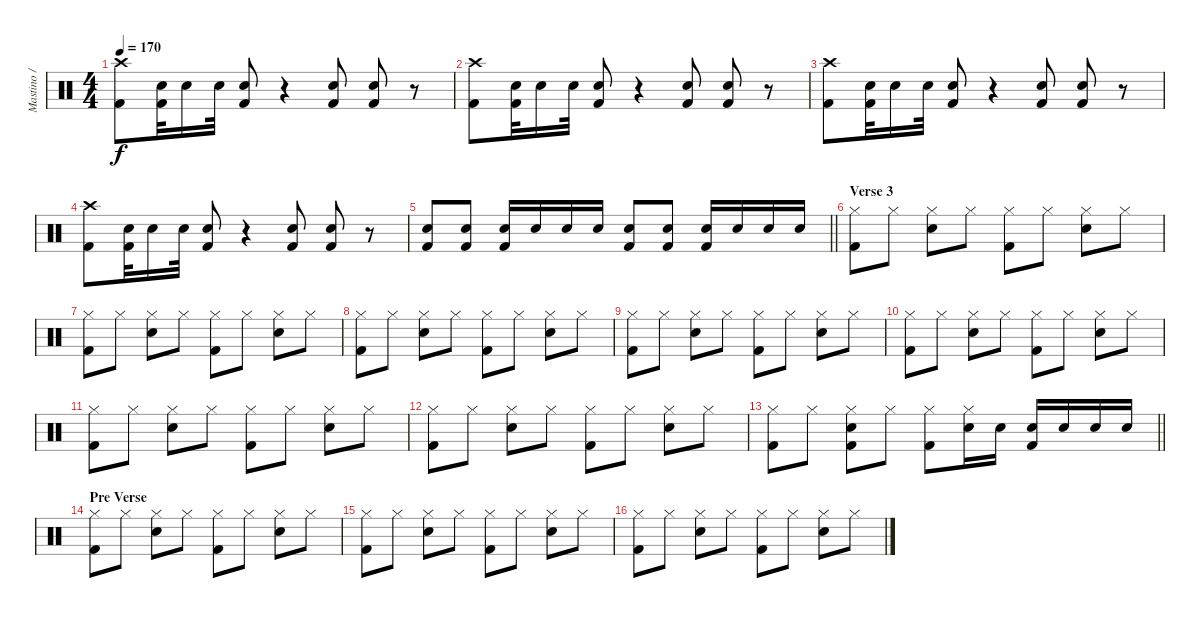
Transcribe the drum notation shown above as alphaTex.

\track ("Mastino / Drums" "Mastino / ") {instrument percussion}
\staff {score}
\articulation defaults
\ts (4 4)
\tempo 170
\clef neutral
\ks c
("Crash high (hit)" "Kick (hit) 2").8{dy f} ("Electric Snare (hit)" "Kick (hit) 2").32 "Electric Snare (hit)".16 "Electric Snare (hit)".32 ("Electric Snare (hit)" "Kick (hit) 2").8 r.4 ("Electric Snare (hit)" "Kick (hit) 2").8 ("Electric Snare (hit)" "Kick (hit) 2").8 r.8 |
("Crash high (hit)" "Kick (hit) 2").8 ("Electric Snare (hit)" "Kick (hit) 2").32 "Electric Snare (hit)".16 "Electric Snare (hit)".32 ("Electric Snare (hit)" "Kick (hit) 2").8 r.4 ("Electric Snare (hit)" "Kick (hit) 2").8 ("Electric Snare (hit)" "Kick (hit) 2").8 r.8 |
("Crash high (hit)" "Kick (hit) 2").8 ("Electric Snare (hit)" "Kick (hit) 2").32 "Electric Snare (hit)".16 "Electric Snare (hit)".32 ("Electric Snare (hit)" "Kick (hit) 2").8 r.4 ("Electric Snare (hit)" "Kick (hit) 2").8 ("Electric Snare (hit)" "Kick (hit) 2").8 r.8 |
("Crash high (hit)" "Kick (hit) 2").8 ("Electric Snare (hit)" "Kick (hit) 2").32 "Electric Snare (hit)".16 "Electric Snare (hit)".32 ("Electric Snare (hit)" "Kick (hit) 2").8 r.4 ("Electric Snare (hit)" "Kick (hit) 2").8 ("Electric Snare (hit)" "Kick (hit) 2").8 r.8 |
\barLineRight lightlight
("Electric Snare (hit)" "Kick (hit) 2").8 ("Electric Snare (hit)" "Kick (hit) 2").8 ("Electric Snare (hit)" "Kick (hit) 2").16 "Electric Snare (hit)".16 "Electric Snare (hit)".16 "Electric Snare (hit)".16 ("Electric Snare (hit)" "Kick (hit) 2").8 ("Electric Snare (hit)" "Kick (hit) 2").8 ("Electric Snare (hit)" "Kick (hit) 2").16 "Electric Snare (hit)".16 "Electric Snare (hit)".16 "Electric Snare (hit)".16 |
\section ("" "Verse 3")
("Hi-Hat (closed)" "Kick (hit) 2").8 "Hi-Hat (closed)".8 ("Hi-Hat (closed)" "Electric Snare (hit)").8 "Hi-Hat (closed)".8 ("Hi-Hat (closed)" "Kick (hit) 2").8 "Hi-Hat (closed)".8 ("Hi-Hat (closed)" "Electric Snare (hit)").8 "Hi-Hat (closed)".8 |
("Hi-Hat (closed)" "Kick (hit) 2").8 "Hi-Hat (closed)".8 ("Hi-Hat (closed)" "Electric Snare (hit)").8 "Hi-Hat (closed)".8 ("Hi-Hat (closed)" "Kick (hit) 2").8 "Hi-Hat (closed)".8 ("Hi-Hat (closed)" "Electric Snare (hit)").8 "Hi-Hat (closed)".8 |
("Hi-Hat (closed)" "Kick (hit) 2").8 "Hi-Hat (closed)".8 ("Hi-Hat (closed)" "Electric Snare (hit)").8 "Hi-Hat (closed)".8 ("Hi-Hat (closed)" "Kick (hit) 2").8 "Hi-Hat (closed)".8 ("Hi-Hat (closed)" "Electric Snare (hit)").8 "Hi-Hat (closed)".8 |
("Hi-Hat (closed)" "Kick (hit) 2").8 "Hi-Hat (closed)".8 ("Hi-Hat (closed)" "Electric Snare (hit)").8 "Hi-Hat (closed)".8 ("Hi-Hat (closed)" "Kick (hit) 2").8 "Hi-Hat (closed)".8 ("Hi-Hat (closed)" "Electric Snare (hit)").8 "Hi-Hat (closed)".8 |
("Hi-Hat (closed)" "Kick (hit) 2").8 "Hi-Hat (closed)".8 ("Hi-Hat (closed)" "Electric Snare (hit)").8 "Hi-Hat (closed)".8 ("Hi-Hat (closed)" "Kick (hit) 2").8 "Hi-Hat (closed)".8 ("Hi-Hat (closed)" "Electric Snare (hit)").8 "Hi-Hat (closed)".8 |
("Hi-Hat (closed)" "Kick (hit) 2").8 "Hi-Hat (closed)".8 ("Hi-Hat (closed)" "Electric Snare (hit)").8 "Hi-Hat (closed)".8 ("Hi-Hat (closed)" "Kick (hit) 2").8 "Hi-Hat (closed)".8 ("Hi-Hat (closed)" "Electric Snare (hit)").8 "Hi-Hat (closed)".8 |
("Hi-Hat (closed)" "Kick (hit) 2").8 "Hi-Hat (closed)".8 ("Hi-Hat (closed)" "Electric Snare (hit)").8 "Hi-Hat (closed)".8 ("Hi-Hat (closed)" "Kick (hit) 2").8 "Hi-Hat (closed)".8 ("Hi-Hat (closed)" "Electric Snare (hit)").8 "Hi-Hat (closed)".8 |
\barLineRight lightlight
("Hi-Hat (closed)" "Kick (hit) 2").8 "Hi-Hat (closed)".8 ("Hi-Hat (closed)" "Electric Snare (hit)" "Kick (hit) 2").8 "Hi-Hat (closed)".8 ("Hi-Hat (closed)" "Kick (hit) 2").8 ("Hi-Hat (closed)" "Electric Snare (hit)").16 "Electric Snare (hit)".16 ("Electric Snare (hit)" "Kick (hit) 2").16 "Electric Snare (hit)".16 "Electric Snare (hit)".16 "Electric Snare (hit)".16 |
\section ("" "Pre Verse")
("Hi-Hat (closed)" "Kick (hit) 2").8 "Hi-Hat (closed)".8 ("Hi-Hat (closed)" "Electric Snare (hit)").8 "Hi-Hat (closed)".8 ("Hi-Hat (closed)" "Kick (hit) 2").8 "Hi-Hat (closed)".8 ("Hi-Hat (closed)" "Electric Snare (hit)").8 "Hi-Hat (closed)".8 |
("Hi-Hat (closed)" "Kick (hit) 2").8 "Hi-Hat (closed)".8 ("Hi-Hat (closed)" "Electric Snare (hit)").8 "Hi-Hat (closed)".8 ("Hi-Hat (closed)" "Kick (hit) 2").8 "Hi-Hat (closed)".8 ("Hi-Hat (closed)" "Electric Snare (hit)").8 "Hi-Hat (closed)".8 |
("Hi-Hat (closed)" "Kick (hit) 2").8 "Hi-Hat (closed)".8 ("Hi-Hat (closed)" "Electric Snare (hit)").8 "Hi-Hat (closed)".8 ("Hi-Hat (closed)" "Kick (hit) 2").8 "Hi-Hat (closed)".8 ("Hi-Hat (closed)" "Electric Snare (hit)").8 "Hi-Hat (closed)".8
